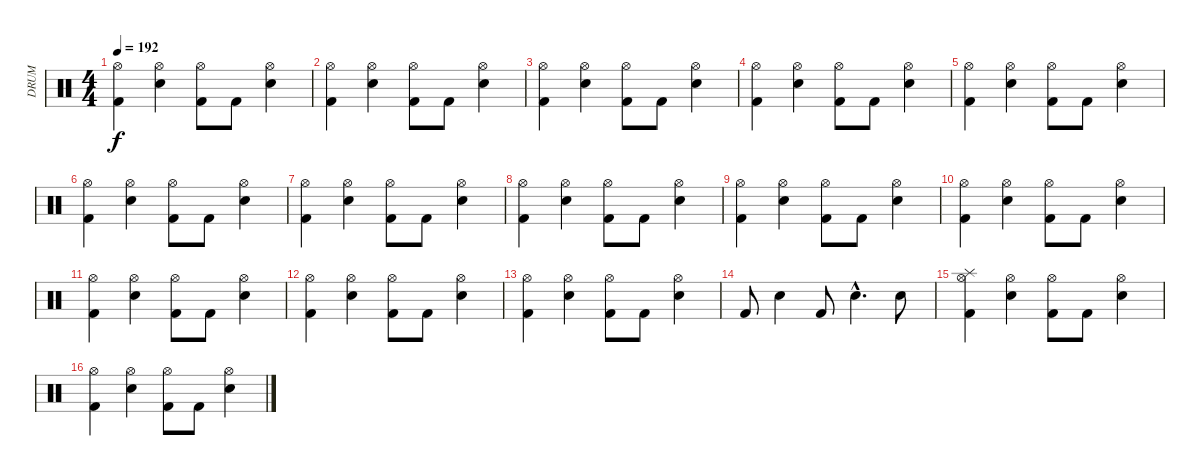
\track ("     DRUM" "     DRUM") {instrument percussion}
\staff {score}
\articulation defaults
\ts (4 4)
\tempo 192
\clef neutral
\ks c
("Hi-Hat (open)" "Kick (hit) 2").4{dy f} ("Hi-Hat (open)" "Electric Snare (hit)").4 ("Hi-Hat (open)" "Kick (hit) 2").8 "Kick (hit) 2".8 ("Hi-Hat (open)" "Electric Snare (hit)").4 |
("Hi-Hat (open)" "Kick (hit) 2").4 ("Hi-Hat (open)" "Electric Snare (hit)").4 ("Hi-Hat (open)" "Kick (hit) 2").8 "Kick (hit) 2".8 ("Hi-Hat (open)" "Electric Snare (hit)").4 |
("Hi-Hat (open)" "Kick (hit) 2").4 ("Hi-Hat (open)" "Electric Snare (hit)").4 ("Hi-Hat (open)" "Kick (hit) 2").8 "Kick (hit) 2".8 ("Hi-Hat (open)" "Electric Snare (hit)").4 |
("Hi-Hat (open)" "Kick (hit) 2").4 ("Hi-Hat (open)" "Electric Snare (hit)").4 ("Hi-Hat (open)" "Kick (hit) 2").8 "Kick (hit) 2".8 ("Hi-Hat (open)" "Electric Snare (hit)").4 |
("Hi-Hat (open)" "Kick (hit) 2").4 ("Hi-Hat (open)" "Electric Snare (hit)").4 ("Hi-Hat (open)" "Kick (hit) 2").8 "Kick (hit) 2".8 ("Hi-Hat (open)" "Electric Snare (hit)").4 |
("Hi-Hat (open)" "Kick (hit) 2").4 ("Hi-Hat (open)" "Electric Snare (hit)").4 ("Hi-Hat (open)" "Kick (hit) 2").8 "Kick (hit) 2".8 ("Hi-Hat (open)" "Electric Snare (hit)").4 |
("Hi-Hat (open)" "Kick (hit) 2").4 ("Hi-Hat (open)" "Electric Snare (hit)").4 ("Hi-Hat (open)" "Kick (hit) 2").8 "Kick (hit) 2".8 ("Hi-Hat (open)" "Electric Snare (hit)").4 |
("Hi-Hat (open)" "Kick (hit) 2").4 ("Hi-Hat (open)" "Electric Snare (hit)").4 ("Hi-Hat (open)" "Kick (hit) 2").8 "Kick (hit) 2".8 ("Hi-Hat (open)" "Electric Snare (hit)").4 |
("Hi-Hat (open)" "Kick (hit) 2").4 ("Hi-Hat (open)" "Electric Snare (hit)").4 ("Hi-Hat (open)" "Kick (hit) 2").8 "Kick (hit) 2".8 ("Hi-Hat (open)" "Electric Snare (hit)").4 |
("Hi-Hat (open)" "Kick (hit) 2").4 ("Hi-Hat (open)" "Electric Snare (hit)").4 ("Hi-Hat (open)" "Kick (hit) 2").8 "Kick (hit) 2".8 ("Hi-Hat (open)" "Electric Snare (hit)").4 |
("Hi-Hat (open)" "Kick (hit) 2").4 ("Hi-Hat (open)" "Electric Snare (hit)").4 ("Hi-Hat (open)" "Kick (hit) 2").8 "Kick (hit) 2".8 ("Hi-Hat (open)" "Electric Snare (hit)").4 |
("Hi-Hat (open)" "Kick (hit) 2").4 ("Hi-Hat (open)" "Electric Snare (hit)").4 ("Hi-Hat (open)" "Kick (hit) 2").8 "Kick (hit) 2".8 ("Hi-Hat (open)" "Electric Snare (hit)").4 |
("Hi-Hat (open)" "Kick (hit) 2").4 ("Hi-Hat (open)" "Electric Snare (hit)").4 ("Hi-Hat (open)" "Kick (hit) 2").8 "Kick (hit) 2".8 ("Hi-Hat (open)" "Electric Snare (hit)").4 |
"Kick (hit) 2".8 "Electric Snare (hit)".4 "Kick (hit) 2".8 "Electric Snare (hit)"{hac}.4{d} "Electric Snare (hit)".8 |
("Splash (hit)" "Hi-Hat (open)" "Kick (hit) 2").4 ("Hi-Hat (open)" "Electric Snare (hit)").4 ("Hi-Hat (open)" "Kick (hit) 2").8 "Kick (hit) 2".8 ("Hi-Hat (open)" "Electric Snare (hit)").4 |
("Hi-Hat (open)" "Kick (hit) 2").4 ("Hi-Hat (open)" "Electric Snare (hit)").4 ("Hi-Hat (open)" "Kick (hit) 2").8 "Kick (hit) 2".8 ("Hi-Hat (open)" "Electric Snare (hit)").4
